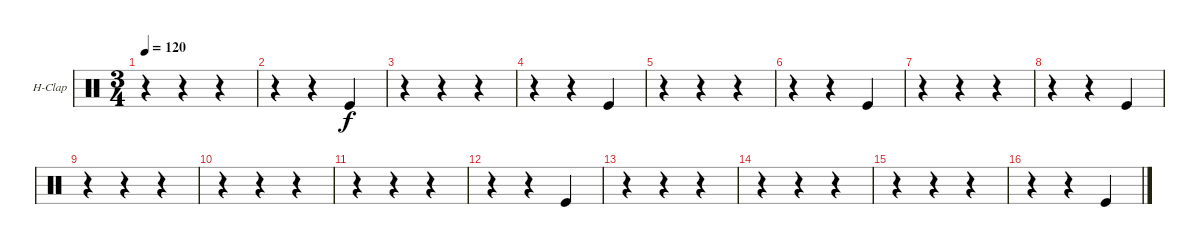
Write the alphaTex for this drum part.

\bracketExtendMode groupsimilarinstruments
\firstSystemTrackNameOrientation horizontal
\otherSystemsTrackNameOrientation horizontal
\track ("Hand Clap" "H-Clap") {instrument percussion}
\staff {score}
\articulation defaults
\ts (3 4)
\tempo 120
\clef neutral
\ks c
r.4{dy f} r.4 r.4 |
r.4 r.4 "Kick (hit)".4 |
r.4 r.4 r.4 |
r.4 r.4 "Kick (hit)".4 |
r.4 r.4 r.4 |
r.4 r.4 "Kick (hit)".4 |
r.4 r.4 r.4 |
r.4 r.4 "Kick (hit)".4 |
r.4 r.4 r.4 |
r.4 r.4 r.4 |
r.4 r.4 r.4 |
r.4 r.4 "Kick (hit)".4 |
r.4 r.4 r.4 |
r.4 r.4 r.4 |
r.4 r.4 r.4 |
r.4 r.4 "Kick (hit)".4
